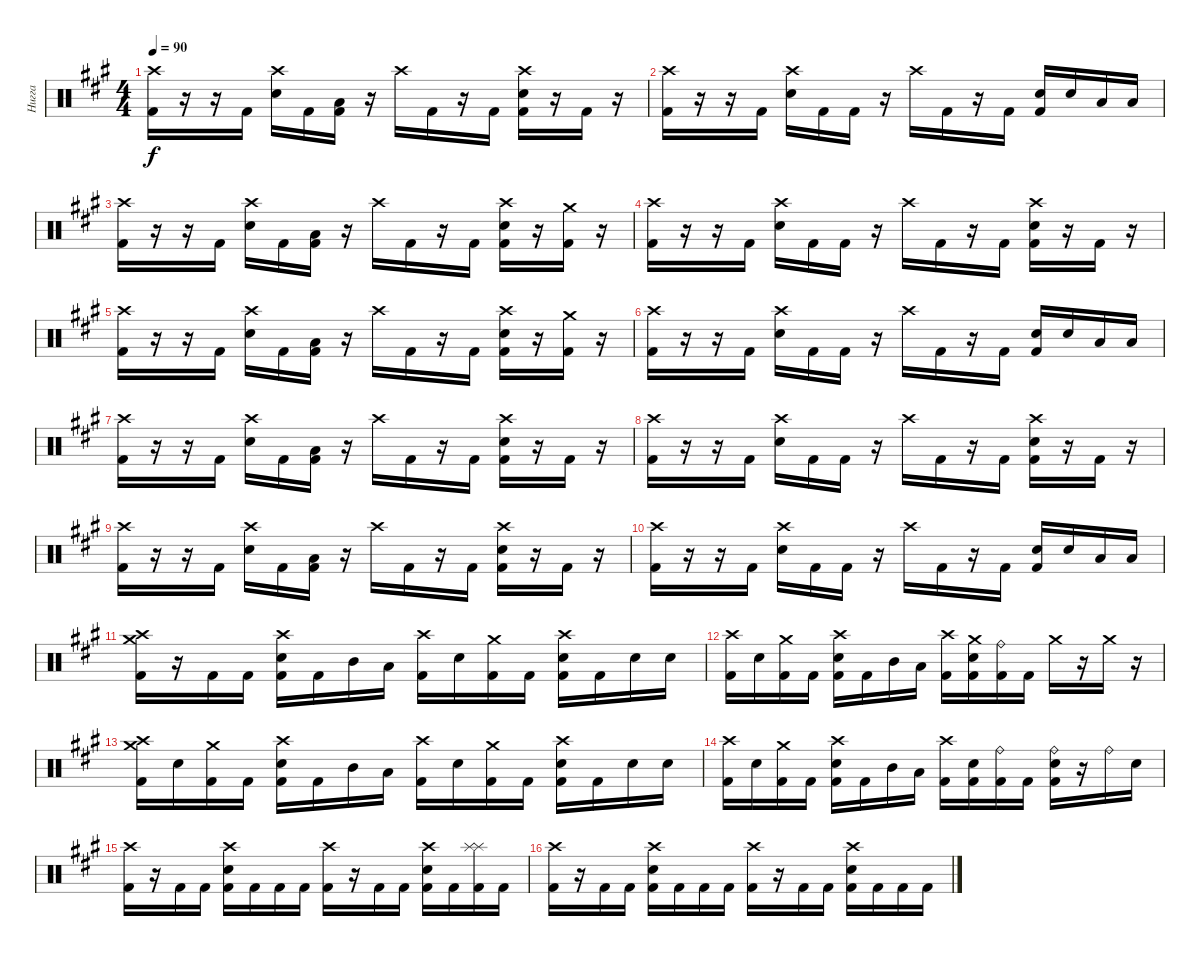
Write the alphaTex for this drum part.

\track ("Нигга" "Нигга") {instrument percussion}
\staff
\articulation defaults
\ts (4 4)
\tempo 90
\clef neutral
\ks f#minor
("Crash high (hit)" "Kick (hit) 2").16{dy f} r.16 r.16 "Kick (hit) 2".16 ("Crash high (hit)" "Electric Snare (hit)").16 "Kick (hit) 2".16 ("Low Tom (hit)" "Kick (hit) 2").16 r.16 "Crash high (hit)".16 "Kick (hit) 2".16 r.16 "Kick (hit) 2".16 ("Crash high (hit)" "Electric Snare (hit)" "Kick (hit) 2").16 r.16 "Kick (hit) 2".16 r.16 |
("Crash high (hit)" "Kick (hit) 2").16 r.16 r.16 "Kick (hit) 2".16 ("Crash high (hit)" "Electric Snare (hit)").16 "Kick (hit) 2".16 "Kick (hit) 2".16 r.16 "Crash high (hit)".16 "Kick (hit) 2".16 r.16 "Kick (hit) 2".16 ("Electric Snare (hit)" "Kick (hit) 2").16 "Electric Snare (hit)".16 "Low Tom (hit)".16 "Low Tom (hit)".16 |
("Crash high (hit)" "Kick (hit) 2").16 r.16 r.16 "Kick (hit) 2".16 ("Crash high (hit)" "Electric Snare (hit)").16 "Kick (hit) 2".16 ("Low Tom (hit)" "Kick (hit) 2").16 r.16 "Crash high (hit)".16 "Kick (hit) 2".16 r.16 "Kick (hit) 2".16 ("Crash high (hit)" "Electric Snare (hit)" "Kick (hit) 2").16 r.16 ("Crash medium (hit)" "Kick (hit) 2").16 r.16 |
("Crash high (hit)" "Kick (hit) 2").16 r.16 r.16 "Kick (hit) 2".16 ("Crash high (hit)" "Electric Snare (hit)").16 "Kick (hit) 2".16 "Kick (hit) 2".16 r.16 "Crash high (hit)".16 "Kick (hit) 2".16 r.16 "Kick (hit) 2".16 ("Crash high (hit)" "Electric Snare (hit)" "Kick (hit) 2").16 r.16 "Kick (hit) 2".16 r.16 |
("Crash high (hit)" "Kick (hit) 2").16 r.16 r.16 "Kick (hit) 2".16 ("Crash high (hit)" "Electric Snare (hit)").16 "Kick (hit) 2".16 ("Low Tom (hit)" "Kick (hit) 2").16 r.16 "Crash high (hit)".16 "Kick (hit) 2".16 r.16 "Kick (hit) 2".16 ("Crash high (hit)" "Electric Snare (hit)" "Kick (hit) 2").16 r.16 ("Crash medium (hit)" "Kick (hit) 2").16 r.16 |
("Crash high (hit)" "Kick (hit) 2").16 r.16 r.16 "Kick (hit) 2".16 ("Crash high (hit)" "Electric Snare (hit)").16 "Kick (hit) 2".16 "Kick (hit) 2".16 r.16 "Crash high (hit)".16 "Kick (hit) 2".16 r.16 "Kick (hit) 2".16 ("Electric Snare (hit)" "Kick (hit) 2").16 "Electric Snare (hit)".16 "Low Tom (hit)".16 "Low Tom (hit)".16 |
("Crash high (hit)" "Kick (hit) 2").16 r.16 r.16 "Kick (hit) 2".16 ("Crash high (hit)" "Electric Snare (hit)").16 "Kick (hit) 2".16 ("Low Tom (hit)" "Kick (hit) 2").16 r.16 "Crash high (hit)".16 "Kick (hit) 2".16 r.16 "Kick (hit) 2".16 ("Crash high (hit)" "Electric Snare (hit)" "Kick (hit) 2").16 r.16 "Kick (hit) 2".16 r.16 |
("Crash high (hit)" "Kick (hit) 2").16 r.16 r.16 "Kick (hit) 2".16 ("Crash high (hit)" "Electric Snare (hit)").16 "Kick (hit) 2".16 "Kick (hit) 2".16 r.16 "Crash high (hit)".16 "Kick (hit) 2".16 r.16 "Kick (hit) 2".16 ("Crash high (hit)" "Electric Snare (hit)" "Kick (hit) 2").16 r.16 "Kick (hit) 2".16 r.16 |
("Crash high (hit)" "Kick (hit) 2").16 r.16 r.16 "Kick (hit) 2".16 ("Crash high (hit)" "Electric Snare (hit)").16 "Kick (hit) 2".16 ("Low Tom (hit)" "Kick (hit) 2").16 r.16 "Crash high (hit)".16 "Kick (hit) 2".16 r.16 "Kick (hit) 2".16 ("Crash high (hit)" "Electric Snare (hit)" "Kick (hit) 2").16 r.16 "Kick (hit) 2".16 r.16 |
("Crash high (hit)" "Kick (hit) 2").16 r.16 r.16 "Kick (hit) 2".16 ("Crash high (hit)" "Electric Snare (hit)").16 "Kick (hit) 2".16 "Kick (hit) 2".16 r.16 "Crash high (hit)".16 "Kick (hit) 2".16 r.16 "Kick (hit) 2".16 ("Electric Snare (hit)" "Kick (hit) 2").16 "Electric Snare (hit)".16 "Low Tom (hit)".16 "Low Tom (hit)".16 |
("Crash high (hit)" "Crash medium (hit)" "Kick (hit) 2").16 r.16 "Kick (hit) 2".16 "Kick (hit) 2".16 ("Crash high (hit)" "Electric Snare (hit)" "Kick (hit) 2").16 "Kick (hit) 2".16 "Mid Tom (hit)".16 "Low Tom (hit)".16 ("Crash high (hit)" "Kick (hit) 2").16 "Electric Snare (hit)".16 ("Crash medium (hit)" "Kick (hit) 2").16 "Kick (hit) 2".16 ("Crash high (hit)" "Electric Snare (hit)" "Kick (hit) 2").16 "Kick (hit) 2".16 "Electric Snare (hit)".16 "Electric Snare (hit)".16 |
("Crash high (hit)" "Kick (hit) 2").16 "Electric Snare (hit)".16 ("Crash medium (hit)" "Kick (hit) 2").16 "Kick (hit) 2".16 ("Crash high (hit)" "Electric Snare (hit)" "Kick (hit) 2").16 "Kick (hit) 2".16 "Mid Tom (hit)".16 "Low Tom (hit)".16 ("Crash high (hit)" "Kick (hit) 2").16 ("Crash medium (hit)" "Electric Snare (hit)" "Kick (hit) 2").16 ("Ride (bell)" "Kick (hit) 2").16 "Kick (hit) 2".16 "Crash medium (hit)".16 r.16 "Crash medium (hit)".16 r.16 |
("Crash high (hit)" "Crash medium (hit)" "Kick (hit) 2").16 "Electric Snare (hit)".16 ("Crash medium (hit)" "Kick (hit) 2").16 "Kick (hit) 2".16 ("Crash high (hit)" "Electric Snare (hit)" "Kick (hit) 2").16 "Kick (hit) 2".16 "Mid Tom (hit)".16 "Low Tom (hit)".16 ("Crash high (hit)" "Kick (hit) 2").16 "Electric Snare (hit)".16 ("Crash medium (hit)" "Kick (hit) 2").16 "Kick (hit) 2".16 ("Crash high (hit)" "Electric Snare (hit)" "Kick (hit) 2").16 "Kick (hit) 2".16 "Electric Snare (hit)".16 "Electric Snare (hit)".16 |
("Crash high (hit)" "Kick (hit) 2").16 "Electric Snare (hit)".16 ("Crash medium (hit)" "Kick (hit) 2").16 "Kick (hit) 2".16 ("Crash high (hit)" "Electric Snare (hit)" "Kick (hit) 2").16 "Kick (hit) 2".16 "Mid Tom (hit)".16 "Low Tom (hit)".16 ("Crash high (hit)" "Kick (hit) 2").16 ("Electric Snare (hit)" "Kick (hit) 2").16 ("Ride (bell)" "Kick (hit) 2").16 "Kick (hit) 2".16 ("Ride (bell)" "Electric Snare (hit)" "Kick (hit) 2").16 r.16 "Ride (bell)".16 "Electric Snare (hit)".16 |
("Crash high (hit)" "Kick (hit) 2").16 r.16 "Kick (hit) 2".16 "Kick (hit) 2".16 ("Crash high (hit)" "Electric Snare (hit)" "Kick (hit) 2").16 "Kick (hit) 2".16 "Kick (hit) 2".16 "Kick (hit) 2".16 ("Crash high (hit)" "Kick (hit) 2").16 r.16 "Kick (hit) 2".16 "Kick (hit) 2".16 ("Crash high (hit)" "Electric Snare (hit)" "Kick (hit) 2").16 "Kick (hit) 2".16 ("Splash (hit)" "Splash (hit)" "Kick (hit) 2").16 "Kick (hit) 2".16 |
("Crash high (hit)" "Kick (hit) 2").16 r.16 "Kick (hit) 2".16 "Kick (hit) 2".16 ("Crash high (hit)" "Electric Snare (hit)" "Kick (hit) 2").16 "Kick (hit) 2".16 "Kick (hit) 2".16 "Kick (hit) 2".16 ("Crash high (hit)" "Kick (hit) 2").16 r.16 "Kick (hit) 2".16 "Kick (hit) 2".16 ("Crash high (hit)" "Electric Snare (hit)" "Kick (hit) 2").16 "Kick (hit) 2".16 "Kick (hit) 2".16 "Kick (hit) 2".16
